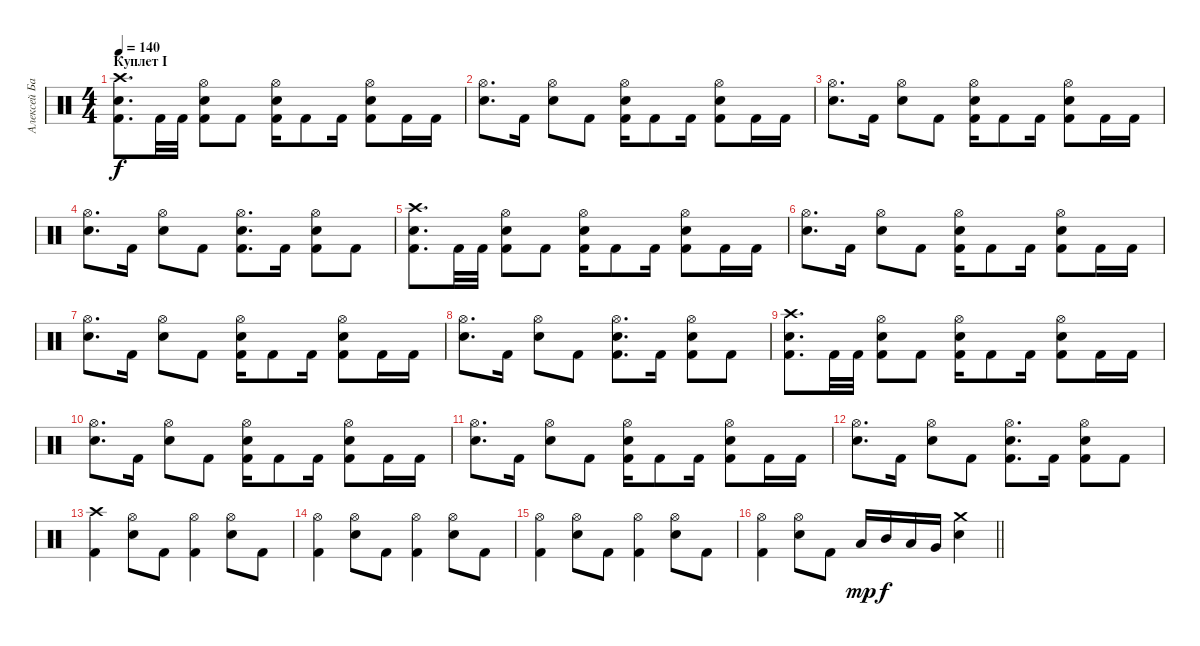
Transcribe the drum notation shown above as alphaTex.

\track ("Алексей Барзилович" "Алексей Ба") {instrument percussion}
\staff {score}
\articulation defaults
\ts (4 4)
\section ("" "Куплет I")
\tempo 140
\clef neutral
\ks c
("Crash high (hit)" "Electric Snare (hit)" "Kick (hit) 2").8{d dy f} "Kick (hit) 2".32 "Kick (hit) 2".32 ("Hi-Hat (open)" "Electric Snare (hit)" "Kick (hit) 2").8 "Kick (hit) 2".8 ("Hi-Hat (open)" "Electric Snare (hit)" "Kick (hit) 2").16 "Kick (hit) 2".8 "Kick (hit) 2".16 ("Hi-Hat (open)" "Electric Snare (hit)" "Kick (hit) 2").8 "Kick (hit) 2".16 "Kick (hit) 2".16 |
("Hi-Hat (open)" "Electric Snare (hit)").8{d} "Kick (hit) 2".16 ("Hi-Hat (open)" "Electric Snare (hit)").8 "Kick (hit) 2".8 ("Hi-Hat (open)" "Electric Snare (hit)" "Kick (hit) 2").16 "Kick (hit) 2".8 "Kick (hit) 2".16 ("Hi-Hat (open)" "Electric Snare (hit)" "Kick (hit) 2").8 "Kick (hit) 2".16 "Kick (hit) 2".16 |
("Hi-Hat (open)" "Electric Snare (hit)").8{d} "Kick (hit) 2".16 ("Hi-Hat (open)" "Electric Snare (hit)").8 "Kick (hit) 2".8 ("Hi-Hat (open)" "Electric Snare (hit)" "Kick (hit) 2").16 "Kick (hit) 2".8 "Kick (hit) 2".16 ("Hi-Hat (open)" "Electric Snare (hit)" "Kick (hit) 2").8 "Kick (hit) 2".16 "Kick (hit) 2".16 |
("Hi-Hat (open)" "Electric Snare (hit)").8{d} "Kick (hit) 2".16 ("Hi-Hat (open)" "Electric Snare (hit)").8 "Kick (hit) 2".8 ("Hi-Hat (open)" "Electric Snare (hit)" "Kick (hit) 2").8{d} "Kick (hit) 2".16 ("Hi-Hat (open)" "Electric Snare (hit)" "Kick (hit) 2").8 "Kick (hit) 2".8 |
("Crash high (hit)" "Electric Snare (hit)" "Kick (hit) 2").8{d} "Kick (hit) 2".32 "Kick (hit) 2".32 ("Hi-Hat (open)" "Electric Snare (hit)" "Kick (hit) 2").8 "Kick (hit) 2".8 ("Hi-Hat (open)" "Electric Snare (hit)" "Kick (hit) 2").16 "Kick (hit) 2".8 "Kick (hit) 2".16 ("Hi-Hat (open)" "Electric Snare (hit)" "Kick (hit) 2").8 "Kick (hit) 2".16 "Kick (hit) 2".16 |
("Hi-Hat (open)" "Electric Snare (hit)").8{d} "Kick (hit) 2".16 ("Hi-Hat (open)" "Electric Snare (hit)").8 "Kick (hit) 2".8 ("Hi-Hat (open)" "Electric Snare (hit)" "Kick (hit) 2").16 "Kick (hit) 2".8 "Kick (hit) 2".16 ("Hi-Hat (open)" "Electric Snare (hit)" "Kick (hit) 2").8 "Kick (hit) 2".16 "Kick (hit) 2".16 |
("Hi-Hat (open)" "Electric Snare (hit)").8{d} "Kick (hit) 2".16 ("Hi-Hat (open)" "Electric Snare (hit)").8 "Kick (hit) 2".8 ("Hi-Hat (open)" "Electric Snare (hit)" "Kick (hit) 2").16 "Kick (hit) 2".8 "Kick (hit) 2".16 ("Hi-Hat (open)" "Electric Snare (hit)" "Kick (hit) 2").8 "Kick (hit) 2".16 "Kick (hit) 2".16 |
("Hi-Hat (open)" "Electric Snare (hit)").8{d} "Kick (hit) 2".16 ("Hi-Hat (open)" "Electric Snare (hit)").8 "Kick (hit) 2".8 ("Hi-Hat (open)" "Electric Snare (hit)" "Kick (hit) 2").8{d} "Kick (hit) 2".16 ("Hi-Hat (open)" "Electric Snare (hit)" "Kick (hit) 2").8 "Kick (hit) 2".8 |
("Crash high (hit)" "Electric Snare (hit)" "Kick (hit) 2").8{d} "Kick (hit) 2".32 "Kick (hit) 2".32 ("Hi-Hat (open)" "Electric Snare (hit)" "Kick (hit) 2").8 "Kick (hit) 2".8 ("Hi-Hat (open)" "Electric Snare (hit)" "Kick (hit) 2").16 "Kick (hit) 2".8 "Kick (hit) 2".16 ("Hi-Hat (open)" "Electric Snare (hit)" "Kick (hit) 2").8 "Kick (hit) 2".16 "Kick (hit) 2".16 |
("Hi-Hat (open)" "Electric Snare (hit)").8{d} "Kick (hit) 2".16 ("Hi-Hat (open)" "Electric Snare (hit)").8 "Kick (hit) 2".8 ("Hi-Hat (open)" "Electric Snare (hit)" "Kick (hit) 2").16 "Kick (hit) 2".8 "Kick (hit) 2".16 ("Hi-Hat (open)" "Electric Snare (hit)" "Kick (hit) 2").8 "Kick (hit) 2".16 "Kick (hit) 2".16 |
("Hi-Hat (open)" "Electric Snare (hit)").8{d} "Kick (hit) 2".16 ("Hi-Hat (open)" "Electric Snare (hit)").8 "Kick (hit) 2".8 ("Hi-Hat (open)" "Electric Snare (hit)" "Kick (hit) 2").16 "Kick (hit) 2".8 "Kick (hit) 2".16 ("Hi-Hat (open)" "Electric Snare (hit)" "Kick (hit) 2").8 "Kick (hit) 2".16 "Kick (hit) 2".16 |
("Hi-Hat (open)" "Electric Snare (hit)").8{d} "Kick (hit) 2".16 ("Hi-Hat (open)" "Electric Snare (hit)").8 "Kick (hit) 2".8 ("Hi-Hat (open)" "Electric Snare (hit)" "Kick (hit) 2").8{d} "Kick (hit) 2".16 ("Hi-Hat (open)" "Electric Snare (hit)" "Kick (hit) 2").8 "Kick (hit) 2".8 |
("Crash high (hit)" "Kick (hit) 2").4 ("Hi-Hat (open)" "Electric Snare (hit)").8 "Kick (hit) 2".8 ("Hi-Hat (open)" "Kick (hit) 2").4 ("Hi-Hat (open)" "Electric Snare (hit)").8 "Kick (hit) 2".8 |
("Hi-Hat (open)" "Kick (hit) 2").4 ("Hi-Hat (open)" "Electric Snare (hit)").8 "Kick (hit) 2".8 ("Hi-Hat (open)" "Kick (hit) 2").4 ("Hi-Hat (open)" "Electric Snare (hit)").8 "Kick (hit) 2".8 |
("Hi-Hat (open)" "Kick (hit) 2").4 ("Hi-Hat (open)" "Electric Snare (hit)").8 "Kick (hit) 2".8 ("Hi-Hat (open)" "Kick (hit) 2").4 ("Hi-Hat (open)" "Electric Snare (hit)").8 "Kick (hit) 2".8 |
\barLineRight lightlight
("Hi-Hat (open)" "Kick (hit) 2").4 ("Hi-Hat (open)" "Electric Snare (hit)").8 "Kick (hit) 2".8 "Low Tom (hit)".16{dy mp} "Mid Tom (hit)".16{dy f} "Low Tom (hit)".16 "Very Low Tom (hit)".16 ("Crash medium (hit)" "Electric Snare (hit)").4
